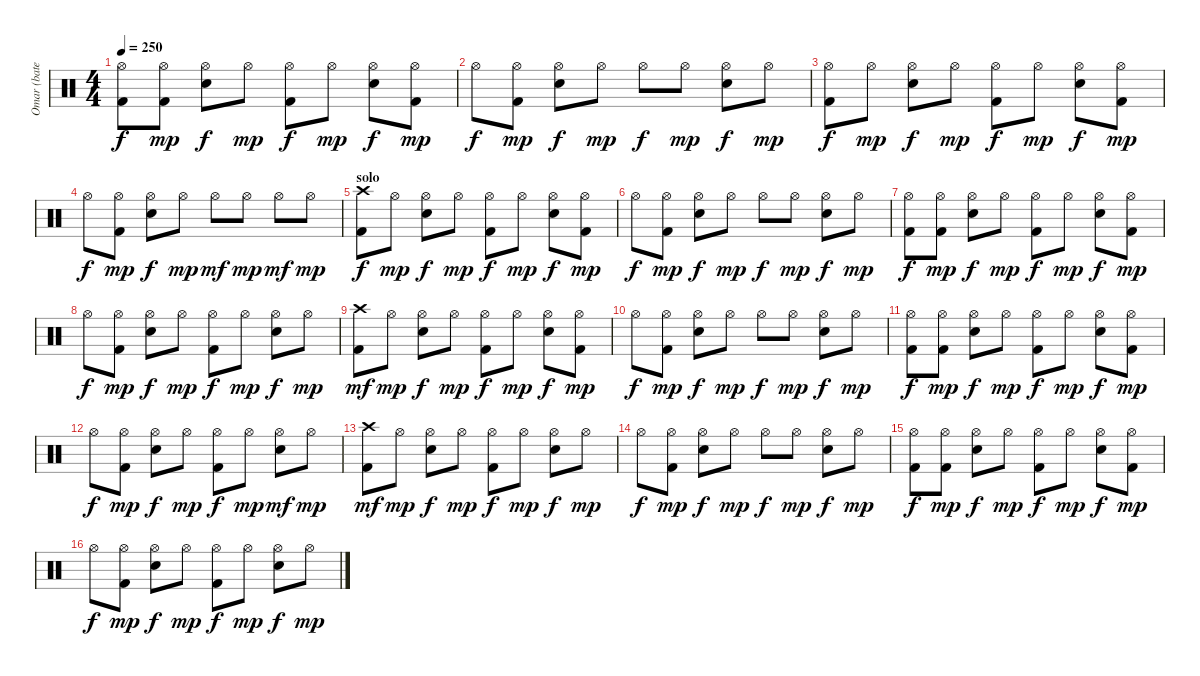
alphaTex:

\track ("Omar (batería)" "Omar (bate") {instrument percussion}
\staff {score}
\articulation defaults
\ts (4 4)
\tempo 250
\clef neutral
\ks c
("Hi-Hat (open)" "Kick (hit) 2").8{dy f} ("Hi-Hat (open)" "Kick (hit) 2").8{dy mp} ("Hi-Hat (open)" "Snare (hit) 2").8{dy f} "Hi-Hat (open)".8{dy mp} ("Hi-Hat (open)" "Kick (hit) 2").8{dy f} "Hi-Hat (open)".8{dy mp} ("Hi-Hat (open)" "Snare (hit) 2").8{dy f} ("Hi-Hat (open)" "Kick (hit) 2").8{dy mp} |
"Hi-Hat (open)".8{dy f} ("Hi-Hat (open)" "Kick (hit) 2").8{dy mp} ("Hi-Hat (open)" "Snare (hit) 2").8{dy f} "Hi-Hat (open)".8{dy mp} "Hi-Hat (open)".8{dy f} "Hi-Hat (open)".8{dy mp} ("Hi-Hat (open)" "Snare (hit) 2").8{dy f} "Hi-Hat (open)".8{dy mp} |
("Hi-Hat (open)" "Kick (hit) 2").8{dy f} "Hi-Hat (open)".8{dy mp} ("Hi-Hat (open)" "Snare (hit) 2").8{dy f} "Hi-Hat (open)".8{dy mp} ("Hi-Hat (open)" "Kick (hit) 2").8{dy f} "Hi-Hat (open)".8{dy mp} ("Hi-Hat (open)" "Snare (hit) 2").8{dy f} ("Hi-Hat (open)" "Kick (hit) 2").8{dy mp} |
"Hi-Hat (open)".8{dy f} ("Hi-Hat (open)" "Kick (hit) 2").8{dy mp} ("Hi-Hat (open)" "Snare (hit) 2").8{dy f} "Hi-Hat (open)".8{dy mp} "Hi-Hat (open)".8{dy mf} "Hi-Hat (open)".8{dy mp} "Hi-Hat (open)".8{dy mf} "Hi-Hat (open)".8{dy mp} |
\section ("" "solo")
("Crash high (hit)" "Kick (hit) 2").8{dy f} "Hi-Hat (open)".8{dy mp} ("Hi-Hat (open)" "Snare (hit) 2").8{dy f} "Hi-Hat (open)".8{dy mp} ("Hi-Hat (open)" "Kick (hit) 2").8{dy f} "Hi-Hat (open)".8{dy mp} ("Hi-Hat (open)" "Snare (hit) 2").8{dy f} ("Hi-Hat (open)" "Kick (hit) 2").8{dy mp} |
"Hi-Hat (open)".8{dy f} ("Hi-Hat (open)" "Kick (hit) 2").8{dy mp} ("Hi-Hat (open)" "Snare (hit) 2").8{dy f} "Hi-Hat (open)".8{dy mp} "Hi-Hat (open)".8{dy f} "Hi-Hat (open)".8{dy mp} ("Hi-Hat (open)" "Snare (hit) 2").8{dy f} "Hi-Hat (open)".8{dy mp} |
("Hi-Hat (open)" "Kick (hit) 2").8{dy f} ("Hi-Hat (open)" "Kick (hit) 2").8{dy mp} ("Hi-Hat (open)" "Snare (hit) 2").8{dy f} "Hi-Hat (open)".8{dy mp} ("Hi-Hat (open)" "Kick (hit) 2").8{dy f} "Hi-Hat (open)".8{dy mp} ("Hi-Hat (open)" "Snare (hit) 2").8{dy f} ("Hi-Hat (open)" "Kick (hit) 2").8{dy mp} |
"Hi-Hat (open)".8{dy f} ("Hi-Hat (open)" "Kick (hit) 2").8{dy mp} ("Hi-Hat (open)" "Snare (hit) 2").8{dy f} "Hi-Hat (open)".8{dy mp} ("Hi-Hat (open)" "Kick (hit) 2").8{dy f} "Hi-Hat (open)".8{dy mp} ("Hi-Hat (open)" "Snare (hit) 2").8{dy f} "Hi-Hat (open)".8{dy mp} |
("Crash high (hit)" "Kick (hit) 2").8{dy mf} "Hi-Hat (open)".8{dy mp} ("Hi-Hat (open)" "Snare (hit) 2").8{dy f} "Hi-Hat (open)".8{dy mp} ("Hi-Hat (open)" "Kick (hit) 2").8{dy f} "Hi-Hat (open)".8{dy mp} ("Hi-Hat (open)" "Snare (hit) 2").8{dy f} ("Hi-Hat (open)" "Kick (hit) 2").8{dy mp} |
"Hi-Hat (open)".8{dy f} ("Hi-Hat (open)" "Kick (hit) 2").8{dy mp} ("Hi-Hat (open)" "Snare (hit) 2").8{dy f} "Hi-Hat (open)".8{dy mp} "Hi-Hat (open)".8{dy f} "Hi-Hat (open)".8{dy mp} ("Hi-Hat (open)" "Snare (hit) 2").8{dy f} "Hi-Hat (open)".8{dy mp} |
("Hi-Hat (open)" "Kick (hit) 2").8{dy f} ("Hi-Hat (open)" "Kick (hit) 2").8{dy mp} ("Hi-Hat (open)" "Snare (hit) 2").8{dy f} "Hi-Hat (open)".8{dy mp} ("Hi-Hat (open)" "Kick (hit) 2").8{dy f} "Hi-Hat (open)".8{dy mp} ("Hi-Hat (open)" "Snare (hit) 2").8{dy f} ("Hi-Hat (open)" "Kick (hit) 2").8{dy mp} |
"Hi-Hat (open)".8{dy f} ("Hi-Hat (open)" "Kick (hit) 2").8{dy mp} ("Hi-Hat (open)" "Snare (hit) 2").8{dy f} "Hi-Hat (open)".8{dy mp} ("Hi-Hat (open)" "Kick (hit) 2").8{dy f} "Hi-Hat (open)".8{dy mp} ("Hi-Hat (open)" "Snare (hit) 2").8{dy mf} "Hi-Hat (open)".8{dy mp} |
("Crash high (hit)" "Kick (hit) 2").8{dy mf} "Hi-Hat (open)".8{dy mp} ("Hi-Hat (open)" "Snare (hit) 2").8{dy f} "Hi-Hat (open)".8{dy mp} ("Hi-Hat (open)" "Kick (hit) 2").8{dy f} "Hi-Hat (open)".8{dy mp} ("Hi-Hat (open)" "Snare (hit) 2").8{dy f} "Hi-Hat (open)".8{dy mp} |
"Hi-Hat (open)".8{dy f} ("Hi-Hat (open)" "Kick (hit) 2").8{dy mp} ("Hi-Hat (open)" "Snare (hit) 2").8{dy f} "Hi-Hat (open)".8{dy mp} "Hi-Hat (open)".8{dy f} "Hi-Hat (open)".8{dy mp} ("Hi-Hat (open)" "Snare (hit) 2").8{dy f} "Hi-Hat (open)".8{dy mp} |
("Hi-Hat (open)" "Kick (hit) 2").8{dy f} ("Hi-Hat (open)" "Kick (hit) 2").8{dy mp} ("Hi-Hat (open)" "Snare (hit) 2").8{dy f} "Hi-Hat (open)".8{dy mp} ("Hi-Hat (open)" "Kick (hit) 2").8{dy f} "Hi-Hat (open)".8{dy mp} ("Hi-Hat (open)" "Snare (hit) 2").8{dy f} ("Hi-Hat (open)" "Kick (hit) 2").8{dy mp} |
"Hi-Hat (open)".8{dy f} ("Hi-Hat (open)" "Kick (hit) 2").8{dy mp} ("Hi-Hat (open)" "Snare (hit) 2").8{dy f} "Hi-Hat (open)".8{dy mp} ("Hi-Hat (open)" "Kick (hit) 2").8{dy f} "Hi-Hat (open)".8{dy mp} ("Hi-Hat (open)" "Snare (hit) 2").8{dy f} "Hi-Hat (open)".8{dy mp}
